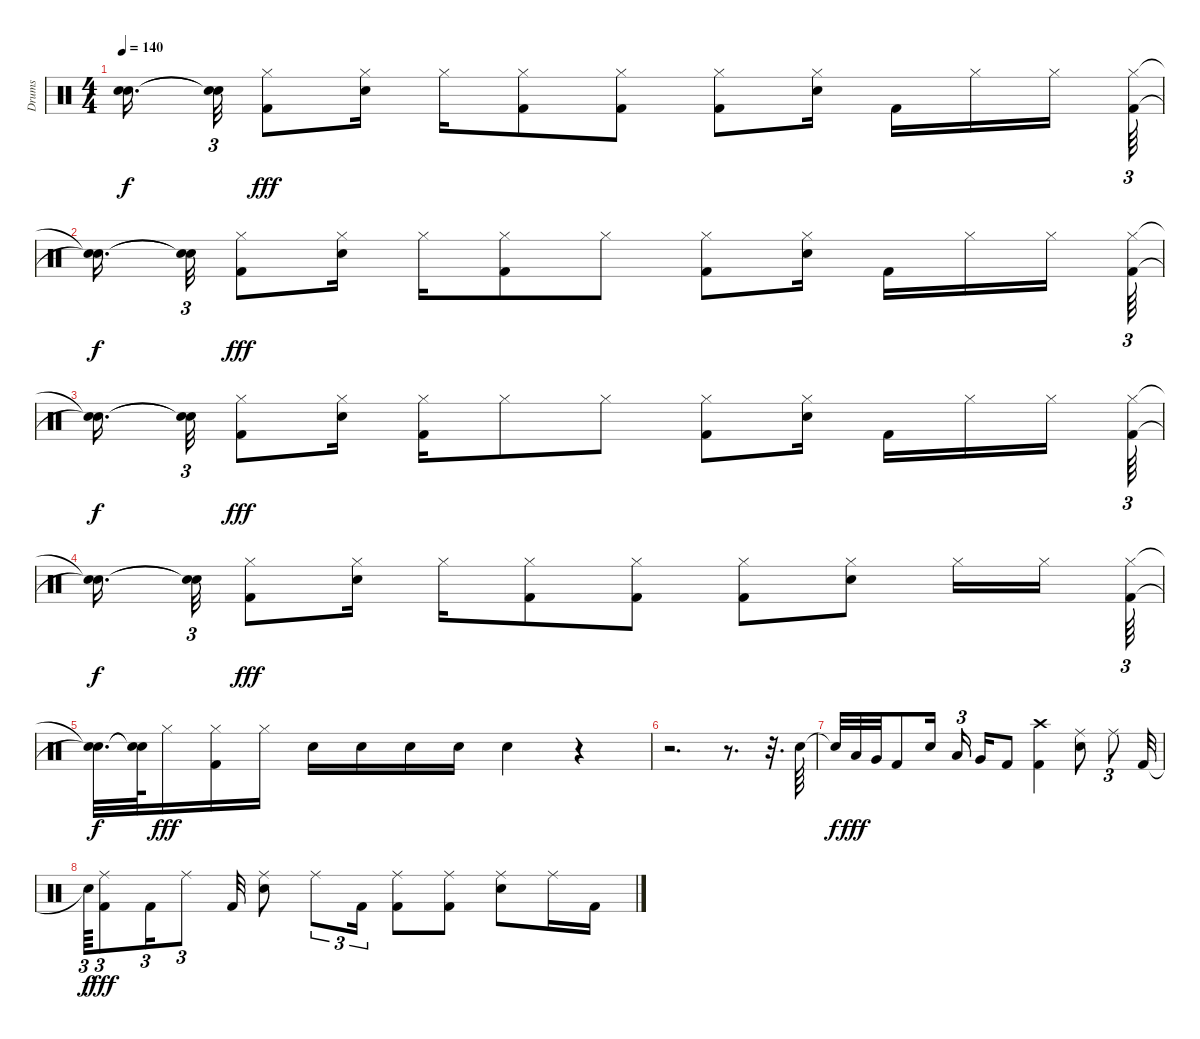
\track ("Drums" "Drums") {instrument percussion}
\staff {score}
\articulation defaults
\ts (4 4)
\tempo 140
\clef neutral
\ks c
("Snare (hit)"{t} "Snare (hit)"{t}).16{d dy f} ("Snare (hit)"{t} "Snare (hit)"{t}).32{tu (3 2)} ("Kick (hit) 2" "Hi-Hat (closed)").8{dy fff} ("Electric Snare (hit)" "Hi-Hat (closed)").16 "Hi-Hat (closed)".16 ("Kick (hit) 2" "Hi-Hat (closed)").8 ("Hi-Hat (closed)" "Kick (hit) 2").8 ("Hi-Hat (closed)" "Kick (hit) 2").8 ("Hi-Hat (closed)" "Snare (hit) 2").16 "Kick (hit) 2".16 "Hi-Hat (closed)".16 "Hi-Hat (closed)".16 ("Kick (hit) 2" "Hi-Hat (closed)").64{tu (3 2)} |
("Snare (hit)"{t} "Snare (hit)"{t}).16{d dy f} ("Snare (hit)"{t} "Snare (hit)"{t}).32{tu (3 2)} ("Hi-Hat (closed)" "Kick (hit) 2").8{dy fff} ("Electric Snare (hit)" "Hi-Hat (closed)").16 "Hi-Hat (closed)".16 ("Hi-Hat (closed)" "Kick (hit) 2").8 "Hi-Hat (closed)".8 ("Hi-Hat (closed)" "Kick (hit) 2").8 ("Hi-Hat (closed)" "Snare (hit) 2").16 "Kick (hit) 2".16 "Hi-Hat (closed)".16 "Hi-Hat (closed)".16 ("Hi-Hat (closed)" "Kick (hit) 2").64{tu (3 2)} |
("Snare (hit)"{t} "Snare (hit)"{t}).16{d dy f} ("Snare (hit)"{t} "Snare (hit)"{t}).32{tu (3 2)} ("Kick (hit) 2" "Hi-Hat (closed)").8{dy fff} ("Hi-Hat (closed)" "Electric Snare (hit)").16 ("Hi-Hat (closed)" "Kick (hit) 2").16 "Hi-Hat (closed)".8 "Hi-Hat (closed)".8 ("Hi-Hat (closed)" "Kick (hit) 2").8 ("Snare (hit) 2" "Hi-Hat (closed)").16 "Kick (hit) 2".16 "Hi-Hat (closed)".16 "Hi-Hat (closed)".16 ("Kick (hit) 2" "Hi-Hat (closed)").64{tu (3 2)} |
("Snare (hit)"{t} "Snare (hit)"{t}).16{d dy f} ("Snare (hit)"{t} "Snare (hit)"{t}).32{tu (3 2)} ("Kick (hit) 2" "Hi-Hat (closed)").8{dy fff} ("Snare (hit) 2" "Hi-Hat (closed)").16 "Hi-Hat (closed)".16 ("Hi-Hat (closed)" "Kick (hit) 2").8 ("Hi-Hat (closed)" "Kick (hit) 2").8 ("Kick (hit) 2" "Hi-Hat (closed)").8 ("Hi-Hat (closed)" "Electric Snare (hit)").8 "Hi-Hat (closed)".16 "Hi-Hat (closed)".16 ("Hi-Hat (closed)" "Kick (hit) 2").64{tu (3 2)} |
("Snare (hit)"{t} "Snare (hit)"{t}).32{d dy f} ("Snare (hit)"{t} "Snare (hit)"{t}).64 "Hi-Hat (closed)".16{dy fff} ("Hi-Hat (closed)" "Kick (hit) 2").16 "Hi-Hat (closed)".16 "Snare (hit) 2".16 "Snare (hit) 2".16 "Snare (hit) 2".16 "Snare (hit) 2".16 "Snare (hit) 2".4 r.4 |
r.2{d} r.8{d} r.32{d} "Snare (hit) 2".64 |
"Snare (hit)"{t}.32{dy f} "Low Tom (hit)".32{dy fff} "Very Low Tom (hit)".32 "Kick (hit) 2".8 "Snare (hit) 2".16 "Low Tom (hit)".16{tu (3 2)} "Very Low Tom (hit)".16 "Kick (hit) 2".8 ("Crash high (hit)" "Kick (hit) 2").4 ("Ride (middle)" "Electric Snare (hit)").8 "Ride (middle)".8{tu (3 2)} "Kick (hit) 2".32 |
"Snare (hit)"{t}.64{tu (3 2) dy f} ("Kick (hit) 2" "Ride (middle)").8{tu (3 2) dy fff} "Kick (hit) 2".16{tu (3 2)} "Ride (middle)".8{tu (3 2)} "Kick (hit) 2".32 ("Ride (middle)" "Snare (hit) 2").8 "Ride (middle)".8{tu (3 2)} "Kick (hit) 2".16{tu (3 2)} ("Kick (hit) 2" "Ride (middle)").8 ("Ride (middle)" "Kick (hit) 2").8 ("Snare (hit) 2" "Ride (middle)").8 "Ride (middle)".16 "Kick (hit) 2".16
